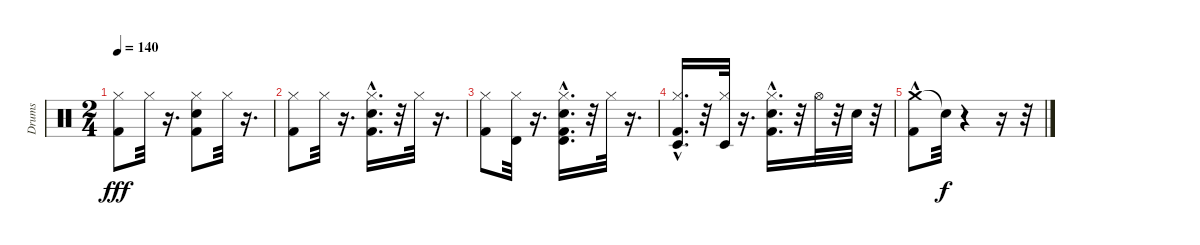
\track ("Drums" "Drums") {instrument percussion}
\staff {score}
\articulation defaults
\ts (2 4)
\tempo 140
\clef neutral
\ks c
("Kick (hit) 2" "Hi-Hat (closed)").8{dy fff} "Hi-Hat (closed)".32 r.16{d} ("Snare (hit) 2" "Kick (hit) 2" "Hi-Hat (closed)").8 "Hi-Hat (closed)".32 r.16{d} |
("Kick (hit) 2" "Hi-Hat (closed)").8 "Hi-Hat (closed)".32 r.16{d} ("Snare (hit) 2"{hac} "Kick (hit) 2"{hac} "Hi-Hat (closed)").16{d} r.32 "Hi-Hat (closed)".32 r.16{d} |
("Kick (hit) 2" "Hi-Hat (closed)").8 ("Timbale high (hit)" "Hi-Hat (closed)").32 r.16{d} ("Kick (hit) 2"{hac} "Timbale high (hit)" "Snare (hit) 2"{hac} "Hi-Hat (closed)").16{d} r.32 "Hi-Hat (closed)".32 r.16{d} |
("Kick (hit) 2"{hac} "Timbale low (hit)" "Hi-Hat (closed)").16{d} r.32 ("Timbale low (hit)" "Hi-Hat (closed)").32 r.16{d} ("Snare (hit) 2"{hac} "Kick (hit) 2"{hac} "Hi-Hat (closed)").16{d} r.32 "Hi-Hat (open)".32 r.32 "Snare (hit) 2".32 r.32 |
("Crash medium (hit)"{hac} "Kick (hit) 2").8 "Snare (hit)"{t}.32{dy f} r.4 r.16 r.32
